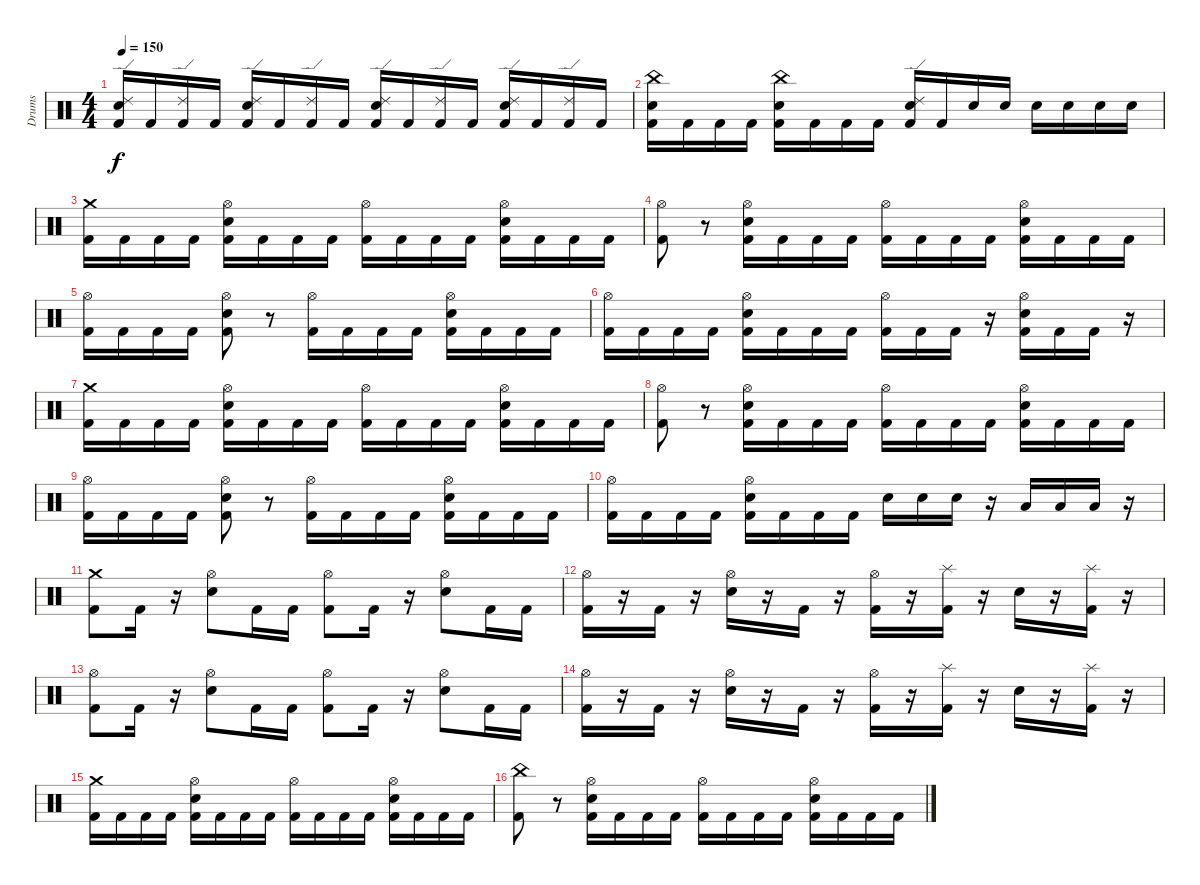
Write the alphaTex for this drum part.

\track ("Drums" "Drums") {instrument percussion}
\staff {score}
\articulation defaults
\ts (4 4)
\tempo 150
\clef neutral
\ks c
("Ride (edge) 2" "Electric Snare (hit)" "Kick (hit) 2").16{dy f} "Kick (hit) 2".16 ("Ride (edge) 2" "Kick (hit) 2").16 "Kick (hit) 2".16 ("Ride (edge) 2" "Electric Snare (hit)" "Kick (hit) 2").16 "Kick (hit) 2".16 ("Ride (edge) 2" "Kick (hit) 2").16 "Kick (hit) 2".16 ("Ride (edge) 2" "Electric Snare (hit)" "Kick (hit) 2").16 "Kick (hit) 2".16 ("Ride (edge) 2" "Kick (hit) 2").16 "Kick (hit) 2".16 ("Ride (edge) 2" "Electric Snare (hit)" "Kick (hit) 2").16 "Kick (hit) 2".16 ("Ride (edge) 2" "Kick (hit) 2").16 "Kick (hit) 2".16 |
("China (hit)" "Electric Snare (hit)" "Kick (hit) 2").16 "Kick (hit) 2".16 "Kick (hit) 2".16 "Kick (hit) 2".16 ("China (hit)" "Electric Snare (hit)" "Kick (hit) 2").16 "Kick (hit) 2".16 "Kick (hit) 2".16 "Kick (hit) 2".16 ("Ride (edge) 2" "Electric Snare (hit)" "Kick (hit) 2").16 "Kick (hit) 2".16 "Electric Snare (hit)".16 "Electric Snare (hit)".16 "Electric Snare (hit)".16 "Electric Snare (hit)".16 "Electric Snare (hit)".16 "Electric Snare (hit)".16 |
("Crash medium (hit)" "Kick (hit) 2").16 "Kick (hit) 2".16 "Kick (hit) 2".16 "Kick (hit) 2".16 ("Hi-Hat (open)" "Electric Snare (hit)" "Kick (hit) 2").16 "Kick (hit) 2".16 "Kick (hit) 2".16 "Kick (hit) 2".16 ("Hi-Hat (open)" "Kick (hit) 2").16 "Kick (hit) 2".16 "Kick (hit) 2".16 "Kick (hit) 2".16 ("Hi-Hat (open)" "Electric Snare (hit)" "Kick (hit) 2").16 "Kick (hit) 2".16 "Kick (hit) 2".16 "Kick (hit) 2".16 |
("Hi-Hat (open)" "Kick (hit) 2").8 r.8 ("Electric Snare (hit)" "Hi-Hat (open)" "Kick (hit) 2").16 "Kick (hit) 2".16 "Kick (hit) 2".16 "Kick (hit) 2".16 ("Hi-Hat (open)" "Kick (hit) 2").16 "Kick (hit) 2".16 "Kick (hit) 2".16 "Kick (hit) 2".16 ("Electric Snare (hit)" "Hi-Hat (open)" "Kick (hit) 2").16 "Kick (hit) 2".16 "Kick (hit) 2".16 "Kick (hit) 2".16 |
("Hi-Hat (open)" "Kick (hit) 2").16 "Kick (hit) 2".16 "Kick (hit) 2".16 "Kick (hit) 2".16 ("Electric Snare (hit)" "Hi-Hat (open)" "Kick (hit) 2").8 r.8 ("Hi-Hat (open)" "Kick (hit) 2").16 "Kick (hit) 2".16 "Kick (hit) 2".16 "Kick (hit) 2".16 ("Hi-Hat (open)" "Electric Snare (hit)" "Kick (hit) 2").16 "Kick (hit) 2".16 "Kick (hit) 2".16 "Kick (hit) 2".16 |
("Hi-Hat (open)" "Kick (hit) 2").16 "Kick (hit) 2".16 "Kick (hit) 2".16 "Kick (hit) 2".16 ("Hi-Hat (open)" "Electric Snare (hit)" "Kick (hit) 2").16 "Kick (hit) 2".16 "Kick (hit) 2".16 "Kick (hit) 2".16 ("Hi-Hat (open)" "Kick (hit) 2").16 "Kick (hit) 2".16 "Kick (hit) 2".16 r.16 ("Electric Snare (hit)" "Hi-Hat (open)" "Kick (hit) 2").16 "Kick (hit) 2".16 "Kick (hit) 2".16 r.16 |
("Crash medium (hit)" "Kick (hit) 2").16 "Kick (hit) 2".16 "Kick (hit) 2".16 "Kick (hit) 2".16 ("Hi-Hat (open)" "Electric Snare (hit)" "Kick (hit) 2").16 "Kick (hit) 2".16 "Kick (hit) 2".16 "Kick (hit) 2".16 ("Hi-Hat (open)" "Kick (hit) 2").16 "Kick (hit) 2".16 "Kick (hit) 2".16 "Kick (hit) 2".16 ("Hi-Hat (open)" "Electric Snare (hit)" "Kick (hit) 2").16 "Kick (hit) 2".16 "Kick (hit) 2".16 "Kick (hit) 2".16 |
("Hi-Hat (open)" "Kick (hit) 2").8 r.8 ("Electric Snare (hit)" "Hi-Hat (open)" "Kick (hit) 2").16 "Kick (hit) 2".16 "Kick (hit) 2".16 "Kick (hit) 2".16 ("Hi-Hat (open)" "Kick (hit) 2").16 "Kick (hit) 2".16 "Kick (hit) 2".16 "Kick (hit) 2".16 ("Electric Snare (hit)" "Hi-Hat (open)" "Kick (hit) 2").16 "Kick (hit) 2".16 "Kick (hit) 2".16 "Kick (hit) 2".16 |
("Hi-Hat (open)" "Kick (hit) 2").16 "Kick (hit) 2".16 "Kick (hit) 2".16 "Kick (hit) 2".16 ("Electric Snare (hit)" "Hi-Hat (open)" "Kick (hit) 2").8 r.8 ("Hi-Hat (open)" "Kick (hit) 2").16 "Kick (hit) 2".16 "Kick (hit) 2".16 "Kick (hit) 2".16 ("Hi-Hat (open)" "Electric Snare (hit)" "Kick (hit) 2").16 "Kick (hit) 2".16 "Kick (hit) 2".16 "Kick (hit) 2".16 |
("Hi-Hat (open)" "Kick (hit) 2").16 "Kick (hit) 2".16 "Kick (hit) 2".16 "Kick (hit) 2".16 ("Hi-Hat (open)" "Electric Snare (hit)" "Kick (hit) 2").16 "Kick (hit) 2".16 "Kick (hit) 2".16 "Kick (hit) 2".16 "Electric Snare (hit)".16 "Electric Snare (hit)".16 "Electric Snare (hit)".16 r.16 "Low Tom (hit)".16 "Low Tom (hit)".16 "Low Tom (hit)".16 r.16 |
("Crash medium (hit)" "Kick (hit) 2").8 "Kick (hit) 2".16 r.16 ("Hi-Hat (open)" "Electric Snare (hit)").8 "Kick (hit) 2".16 "Kick (hit) 2".16 ("Hi-Hat (open)" "Kick (hit) 2").8 "Kick (hit) 2".16 r.16 ("Hi-Hat (open)" "Electric Snare (hit)").8 "Kick (hit) 2".16 "Kick (hit) 2".16 |
("Hi-Hat (open)" "Kick (hit) 2").16 r.16 "Kick (hit) 2".16 r.16 ("Hi-Hat (open)" "Electric Snare (hit)").16 r.16 "Kick (hit) 2".16 r.16 ("Hi-Hat (open)" "Kick (hit) 2").16 r.16 ("Splash (hit)" "Kick (hit) 2").16 r.16 "Electric Snare (hit)".16 r.16 ("Splash (hit)" "Kick (hit) 2").16 r.16 |
("Hi-Hat (open)" "Kick (hit) 2").8 "Kick (hit) 2".16 r.16 ("Hi-Hat (open)" "Electric Snare (hit)").8 "Kick (hit) 2".16 "Kick (hit) 2".16 ("Hi-Hat (open)" "Kick (hit) 2").8 "Kick (hit) 2".16 r.16 ("Hi-Hat (open)" "Electric Snare (hit)").8 "Kick (hit) 2".16 "Kick (hit) 2".16 |
("Hi-Hat (open)" "Kick (hit) 2").16 r.16 "Kick (hit) 2".16 r.16 ("Hi-Hat (open)" "Electric Snare (hit)").16 r.16 "Kick (hit) 2".16 r.16 ("Hi-Hat (open)" "Kick (hit) 2").16 r.16 ("Splash (hit)" "Kick (hit) 2").16 r.16 "Electric Snare (hit)".16 r.16 ("Splash (hit)" "Kick (hit) 2").16 r.16 |
("Crash medium (hit)" "Kick (hit) 2").16 "Kick (hit) 2".16 "Kick (hit) 2".16 "Kick (hit) 2".16 ("Hi-Hat (open)" "Electric Snare (hit)" "Kick (hit) 2").16 "Kick (hit) 2".16 "Kick (hit) 2".16 "Kick (hit) 2".16 ("Hi-Hat (open)" "Kick (hit) 2").16 "Kick (hit) 2".16 "Kick (hit) 2".16 "Kick (hit) 2".16 ("Hi-Hat (open)" "Electric Snare (hit)" "Kick (hit) 2").16 "Kick (hit) 2".16 "Kick (hit) 2".16 "Kick (hit) 2".16 |
("China (hit)" "Kick (hit) 2").8 r.8 ("Electric Snare (hit)" "Hi-Hat (open)" "Kick (hit) 2").16 "Kick (hit) 2".16 "Kick (hit) 2".16 "Kick (hit) 2".16 ("Hi-Hat (open)" "Kick (hit) 2").16 "Kick (hit) 2".16 "Kick (hit) 2".16 "Kick (hit) 2".16 ("Electric Snare (hit)" "Hi-Hat (open)" "Kick (hit) 2").16 "Kick (hit) 2".16 "Kick (hit) 2".16 "Kick (hit) 2".16
